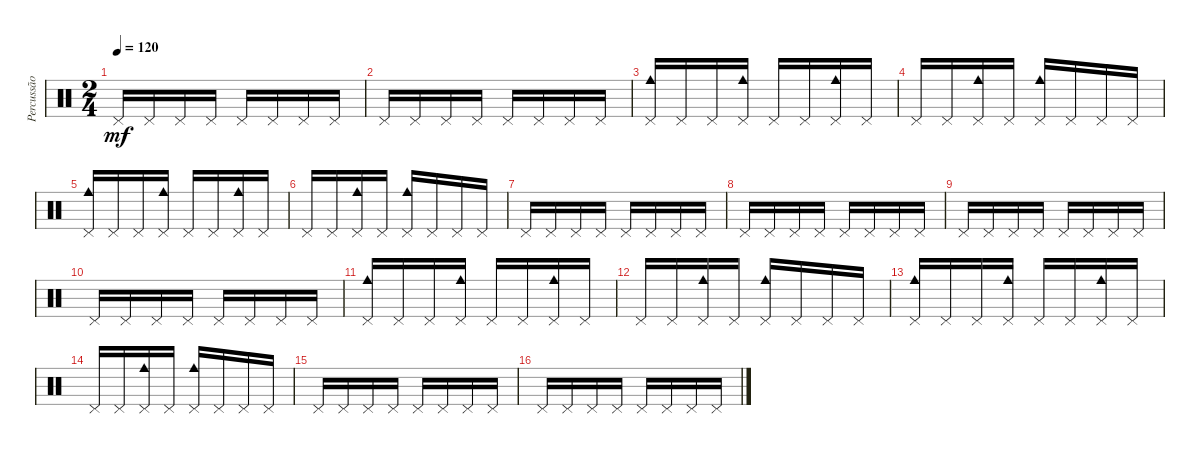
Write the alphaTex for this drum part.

\track ("Percussão" "Percussão") {instrument percussion}
\staff {score}
\articulation defaults
\ts (2 4)
\tempo 120
\clef neutral
\ks c "Pedal Hi-Hat (hit)".16{dy mf} "Pedal Hi-Hat (hit)".16 "Pedal Hi-Hat (hit)".16 "Pedal Hi-Hat (hit)".16 "Pedal Hi-Hat (hit)".16 "Pedal Hi-Hat (hit)".16 "Pedal Hi-Hat (hit)".16 "Pedal Hi-Hat (hit)".16
|
"Pedal Hi-Hat (hit)".16 "Pedal Hi-Hat (hit)".16 "Pedal Hi-Hat (hit)".16 "Pedal Hi-Hat (hit)".16 "Pedal Hi-Hat (hit)".16 "Pedal Hi-Hat (hit)".16 "Pedal Hi-Hat (hit)".16 "Pedal Hi-Hat (hit)".16 |
("Pedal Hi-Hat (hit)" "Cowbell medium (hit)").16 "Pedal Hi-Hat (hit)".16 "Pedal Hi-Hat (hit)".16 ("Pedal Hi-Hat (hit)" "Cowbell medium (hit)").16 "Pedal Hi-Hat (hit)".16 "Pedal Hi-Hat (hit)".16 ("Cowbell medium (hit)" "Pedal Hi-Hat (hit)").16 "Pedal Hi-Hat (hit)".16 |
"Pedal Hi-Hat (hit)".16 "Pedal Hi-Hat (hit)".16 ("Pedal Hi-Hat (hit)" "Cowbell medium (hit)").16 "Pedal Hi-Hat (hit)".16 ("Pedal Hi-Hat (hit)" "Cowbell medium (hit)").16 "Pedal Hi-Hat (hit)".16 "Pedal Hi-Hat (hit)".16 "Pedal Hi-Hat (hit)".16 |
("Cowbell medium (hit)" "Pedal Hi-Hat (hit)").16 "Pedal Hi-Hat (hit)".16 "Pedal Hi-Hat (hit)".16 ("Pedal Hi-Hat (hit)" "Cowbell medium (hit)").16 "Pedal Hi-Hat (hit)".16 "Pedal Hi-Hat (hit)".16 ("Pedal Hi-Hat (hit)" "Cowbell medium (hit)").16 "Pedal Hi-Hat (hit)".16 |
"Pedal Hi-Hat (hit)".16 "Pedal Hi-Hat (hit)".16 ("Pedal Hi-Hat (hit)" "Cowbell medium (hit)").16 "Pedal Hi-Hat (hit)".16 ("Pedal Hi-Hat (hit)" "Cowbell medium (hit)").16 "Pedal Hi-Hat (hit)".16 "Pedal Hi-Hat (hit)".16 "Pedal Hi-Hat (hit)".16 |
"Pedal Hi-Hat (hit)".16 "Pedal Hi-Hat (hit)".16 "Pedal Hi-Hat (hit)".16 "Pedal Hi-Hat (hit)".16 "Pedal Hi-Hat (hit)".16 "Pedal Hi-Hat (hit)".16 "Pedal Hi-Hat (hit)".16 "Pedal Hi-Hat (hit)".16 |
"Pedal Hi-Hat (hit)".16 "Pedal Hi-Hat (hit)".16 "Pedal Hi-Hat (hit)".16 "Pedal Hi-Hat (hit)".16 "Pedal Hi-Hat (hit)".16 "Pedal Hi-Hat (hit)".16 "Pedal Hi-Hat (hit)".16 "Pedal Hi-Hat (hit)".16 |
"Pedal Hi-Hat (hit)".16 "Pedal Hi-Hat (hit)".16 "Pedal Hi-Hat (hit)".16 "Pedal Hi-Hat (hit)".16 "Pedal Hi-Hat (hit)".16 "Pedal Hi-Hat (hit)".16 "Pedal Hi-Hat (hit)".16 "Pedal Hi-Hat (hit)".16 |
"Pedal Hi-Hat (hit)".16 "Pedal Hi-Hat (hit)".16 "Pedal Hi-Hat (hit)".16 "Pedal Hi-Hat (hit)".16 "Pedal Hi-Hat (hit)".16 "Pedal Hi-Hat (hit)".16 "Pedal Hi-Hat (hit)".16 "Pedal Hi-Hat (hit)".16 |
("Pedal Hi-Hat (hit)" "Cowbell medium (hit)").16 "Pedal Hi-Hat (hit)".16 "Pedal Hi-Hat (hit)".16 ("Pedal Hi-Hat (hit)" "Cowbell medium (hit)").16 "Pedal Hi-Hat (hit)".16 "Pedal Hi-Hat (hit)".16 ("Cowbell medium (hit)" "Pedal Hi-Hat (hit)").16 "Pedal Hi-Hat (hit)".16 |
"Pedal Hi-Hat (hit)".16 "Pedal Hi-Hat (hit)".16 ("Pedal Hi-Hat (hit)" "Cowbell medium (hit)").16 "Pedal Hi-Hat (hit)".16 ("Pedal Hi-Hat (hit)" "Cowbell medium (hit)").16 "Pedal Hi-Hat (hit)".16 "Pedal Hi-Hat (hit)".16 "Pedal Hi-Hat (hit)".16 |
("Cowbell medium (hit)" "Pedal Hi-Hat (hit)").16 "Pedal Hi-Hat (hit)".16 "Pedal Hi-Hat (hit)".16 ("Pedal Hi-Hat (hit)" "Cowbell medium (hit)").16 "Pedal Hi-Hat (hit)".16 "Pedal Hi-Hat (hit)".16 ("Pedal Hi-Hat (hit)" "Cowbell medium (hit)").16 "Pedal Hi-Hat (hit)".16 |
"Pedal Hi-Hat (hit)".16 "Pedal Hi-Hat (hit)".16 ("Pedal Hi-Hat (hit)" "Cowbell medium (hit)").16 "Pedal Hi-Hat (hit)".16 ("Pedal Hi-Hat (hit)" "Cowbell medium (hit)").16 "Pedal Hi-Hat (hit)".16 "Pedal Hi-Hat (hit)".16 "Pedal Hi-Hat (hit)".16 |
"Pedal Hi-Hat (hit)".16 "Pedal Hi-Hat (hit)".16 "Pedal Hi-Hat (hit)".16 "Pedal Hi-Hat (hit)".16 "Pedal Hi-Hat (hit)".16 "Pedal Hi-Hat (hit)".16 "Pedal Hi-Hat (hit)".16 "Pedal Hi-Hat (hit)".16 |
"Pedal Hi-Hat (hit)".16 "Pedal Hi-Hat (hit)".16 "Pedal Hi-Hat (hit)".16 "Pedal Hi-Hat (hit)".16 "Pedal Hi-Hat (hit)".16 "Pedal Hi-Hat (hit)".16 "Pedal Hi-Hat (hit)".16 "Pedal Hi-Hat (hit)".16
